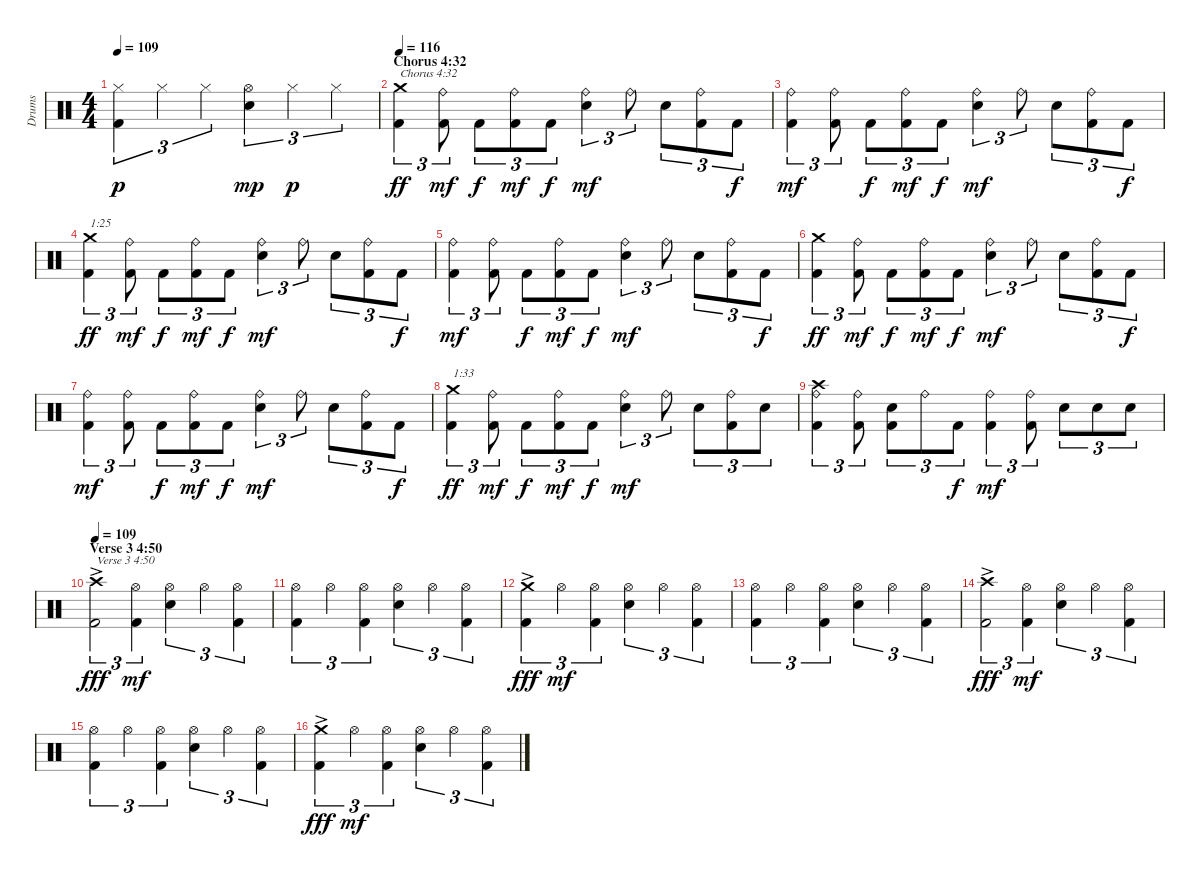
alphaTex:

\track ("Drums" "Drums") {instrument percussion}
\staff {score}
\articulation defaults
\ts (4 4)
\tempo 109
\clef neutral
\ks c
("Kick (hit) 2" "Hi-Hat (closed)").4{tu (3 2) dy p} "Hi-Hat (closed)".4{tu (3 2)} "Hi-Hat (closed)".4{tu (3 2)} ("Electric Snare (hit)" "Hi-Hat (open)").4{tu (3 2) dy mp} "Hi-Hat (closed)".4{tu (3 2) dy p} "Hi-Hat (closed)".4{tu (3 2)} |
\section ("" "Chorus 4:32")
\tempo 116
("Kick (hit) 2" "Crash medium (hit)").4{tu (3 2) txt "Chorus 4:32" dy ff} ("Kick (hit) 2" "Ride (bell)").8{tu (3 2) dy mf} "Kick (hit) 2".8{tu (3 2) dy f} ("Kick (hit) 2" "Ride (bell)").8{tu (3 2) dy mf} "Kick (hit) 2".8{tu (3 2) dy f} ("Electric Snare (hit)" "Ride (bell)").4{tu (3 2) dy mf} "Ride (bell)".8{tu (3 2)} "Electric Snare (hit)".8{tu (3 2)} ("Kick (hit) 2" "Ride (bell)").8{tu (3 2)} "Kick (hit) 2".8{tu (3 2) dy f} |
("Kick (hit) 2" "Ride (bell)").4{tu (3 2) dy mf} ("Kick (hit) 2" "Ride (bell)").8{tu (3 2)} "Kick (hit) 2".8{tu (3 2) dy f} ("Kick (hit) 2" "Ride (bell)").8{tu (3 2) dy mf} "Kick (hit) 2".8{tu (3 2) dy f} ("Electric Snare (hit)" "Ride (bell)").4{tu (3 2) dy mf} "Ride (bell)".8{tu (3 2)} "Electric Snare (hit)".8{tu (3 2)} ("Kick (hit) 2" "Ride (bell)").8{tu (3 2)} "Kick (hit) 2".8{tu (3 2) dy f} |
("Kick (hit) 2" "Crash medium (hit)").4{tu (3 2) txt "1:25" dy ff} ("Kick (hit) 2" "Ride (bell)").8{tu (3 2) dy mf} "Kick (hit) 2".8{tu (3 2) dy f} ("Kick (hit) 2" "Ride (bell)").8{tu (3 2) dy mf} "Kick (hit) 2".8{tu (3 2) dy f} ("Electric Snare (hit)" "Ride (bell)").4{tu (3 2) dy mf} "Ride (bell)".8{tu (3 2)} "Electric Snare (hit)".8{tu (3 2)} ("Kick (hit) 2" "Ride (bell)").8{tu (3 2)} "Kick (hit) 2".8{tu (3 2) dy f} |
("Kick (hit) 2" "Ride (bell)").4{tu (3 2) dy mf} ("Kick (hit) 2" "Ride (bell)").8{tu (3 2)} "Kick (hit) 2".8{tu (3 2) dy f} ("Kick (hit) 2" "Ride (bell)").8{tu (3 2) dy mf} "Kick (hit) 2".8{tu (3 2) dy f} ("Electric Snare (hit)" "Ride (bell)").4{tu (3 2) dy mf} "Ride (bell)".8{tu (3 2)} "Electric Snare (hit)".8{tu (3 2)} ("Kick (hit) 2" "Ride (bell)").8{tu (3 2)} "Kick (hit) 2".8{tu (3 2) dy f} |
("Kick (hit) 2" "Crash medium (hit)").4{tu (3 2) dy ff} ("Kick (hit) 2" "Ride (bell)").8{tu (3 2) dy mf} "Kick (hit) 2".8{tu (3 2) dy f} ("Kick (hit) 2" "Ride (bell)").8{tu (3 2) dy mf} "Kick (hit) 2".8{tu (3 2) dy f} ("Electric Snare (hit)" "Ride (bell)").4{tu (3 2) dy mf} "Ride (bell)".8{tu (3 2)} "Electric Snare (hit)".8{tu (3 2)} ("Kick (hit) 2" "Ride (bell)").8{tu (3 2)} "Kick (hit) 2".8{tu (3 2) dy f} |
("Kick (hit) 2" "Ride (bell)").4{tu (3 2) dy mf} ("Kick (hit) 2" "Ride (bell)").8{tu (3 2)} "Kick (hit) 2".8{tu (3 2) dy f} ("Kick (hit) 2" "Ride (bell)").8{tu (3 2) dy mf} "Kick (hit) 2".8{tu (3 2) dy f} ("Electric Snare (hit)" "Ride (bell)").4{tu (3 2) dy mf} "Ride (bell)".8{tu (3 2)} "Electric Snare (hit)".8{tu (3 2)} ("Kick (hit) 2" "Ride (bell)").8{tu (3 2)} "Kick (hit) 2".8{tu (3 2) dy f} |
("Kick (hit) 2" "Crash medium (hit)").4{tu (3 2) txt "1:33" dy ff} ("Kick (hit) 2" "Ride (bell)").8{tu (3 2) dy mf} "Kick (hit) 2".8{tu (3 2) dy f} ("Kick (hit) 2" "Ride (bell)").8{tu (3 2) dy mf} "Kick (hit) 2".8{tu (3 2) dy f} ("Electric Snare (hit)" "Ride (bell)").4{tu (3 2) dy mf} "Ride (bell)".8{tu (3 2)} "Electric Snare (hit)".8{tu (3 2)} ("Kick (hit) 2" "Ride (bell)").8{tu (3 2)} "Electric Snare (hit)".8{tu (3 2)} |
("Kick (hit) 2" "Ride (bell)" "Crash high (hit)").4{tu (3 2)} ("Kick (hit) 2" "Ride (bell)").8{tu (3 2)} ("Kick (hit) 2" "Electric Snare (hit)").8{tu (3 2)} "Ride (bell)".8{tu (3 2)} "Kick (hit) 2".8{tu (3 2) dy f} ("Kick (hit) 2" "Ride (bell)").4{tu (3 2) dy mf} ("Kick (hit) 2" "Ride (bell)").8{tu (3 2)} "Electric Snare (hit)".8{tu (3 2)} "Electric Snare (hit)".8{tu (3 2)} "Electric Snare (hit)".8{tu (3 2)} |
\section ("" "Verse 3 4:50")
\tempo 109
("Kick (hit) 2" "Crash high (hit)"{ac}).2{tu (3 2) txt "Verse 3 4:50" dy fff} ("Kick (hit) 2" "Hi-Hat (open)").4{tu (3 2) dy mf} ("Electric Snare (hit)" "Hi-Hat (open)").4{tu (3 2)} "Hi-Hat (open)".4{tu (3 2)} ("Kick (hit) 2" "Hi-Hat (open)").4{tu (3 2)} |
("Kick (hit) 2" "Hi-Hat (open)").4{tu (3 2)} "Hi-Hat (open)".4{tu (3 2)} ("Kick (hit) 2" "Hi-Hat (open)").4{tu (3 2)} ("Electric Snare (hit)" "Hi-Hat (open)").4{tu (3 2)} "Hi-Hat (open)".4{tu (3 2)} ("Kick (hit) 2" "Hi-Hat (open)").4{tu (3 2)} |
("Kick (hit) 2" "Crash medium (hit)"{ac}).4{tu (3 2) dy fff} "Hi-Hat (open)".4{tu (3 2) dy mf} ("Kick (hit) 2" "Hi-Hat (open)").4{tu (3 2)} ("Electric Snare (hit)" "Hi-Hat (open)").4{tu (3 2)} "Hi-Hat (open)".4{tu (3 2)} ("Kick (hit) 2" "Hi-Hat (open)").4{tu (3 2)} |
("Kick (hit) 2" "Hi-Hat (open)").4{tu (3 2)} "Hi-Hat (open)".4{tu (3 2)} ("Kick (hit) 2" "Hi-Hat (open)").4{tu (3 2)} ("Electric Snare (hit)" "Hi-Hat (open)").4{tu (3 2)} "Hi-Hat (open)".4{tu (3 2)} ("Kick (hit) 2" "Hi-Hat (open)").4{tu (3 2)} |
("Kick (hit) 2" "Crash high (hit)"{ac}).2{tu (3 2) dy fff} ("Kick (hit) 2" "Hi-Hat (open)").4{tu (3 2) dy mf} ("Electric Snare (hit)" "Hi-Hat (open)").4{tu (3 2)} "Hi-Hat (open)".4{tu (3 2)} ("Kick (hit) 2" "Hi-Hat (open)").4{tu (3 2)} |
("Kick (hit) 2" "Hi-Hat (open)").4{tu (3 2)} "Hi-Hat (open)".4{tu (3 2)} ("Kick (hit) 2" "Hi-Hat (open)").4{tu (3 2)} ("Electric Snare (hit)" "Hi-Hat (open)").4{tu (3 2)} "Hi-Hat (open)".4{tu (3 2)} ("Kick (hit) 2" "Hi-Hat (open)").4{tu (3 2)} |
("Kick (hit) 2" "Crash medium (hit)"{ac}).4{tu (3 2) dy fff} "Hi-Hat (open)".4{tu (3 2) dy mf} ("Kick (hit) 2" "Hi-Hat (open)").4{tu (3 2)} ("Electric Snare (hit)" "Hi-Hat (open)").4{tu (3 2)} "Hi-Hat (open)".4{tu (3 2)} ("Kick (hit) 2" "Hi-Hat (open)").4{tu (3 2)}
